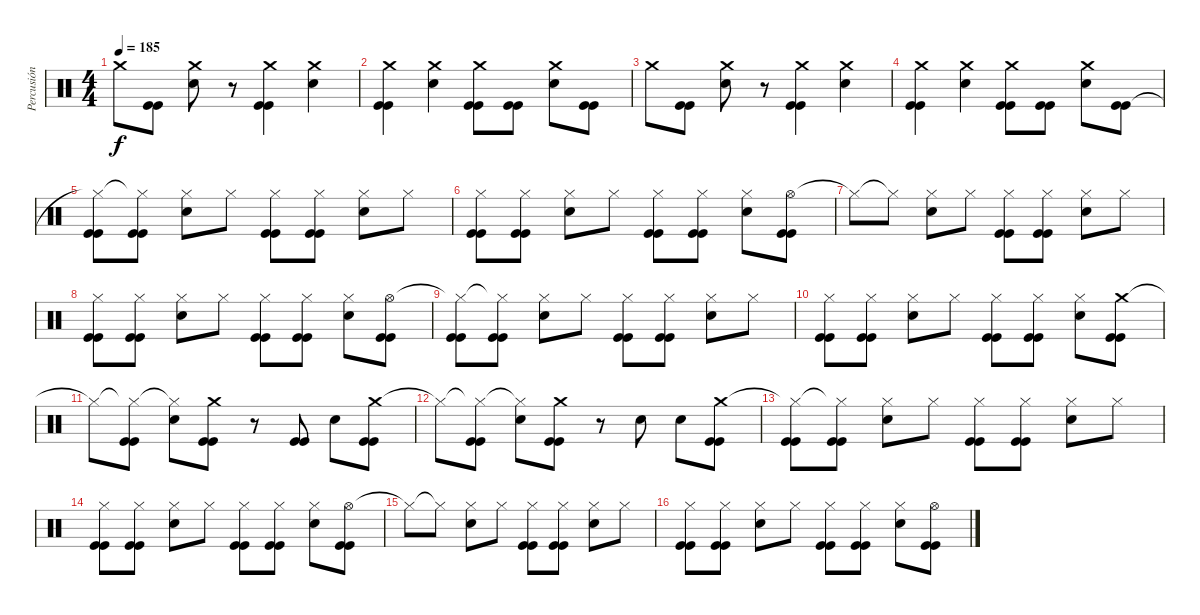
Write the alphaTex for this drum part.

\track ("Percusión" "Percusión") {instrument percussion}
\staff {score}
\articulation defaults
\ts (4 4)
\tempo 185
\clef neutral
\ks c "Crash medium (hit)".8{dy f}
("Kick (hit)" "Kick (hit)").8 ("Crash medium (hit)" "Electric Snare (hit)").8 r.8 ("Crash medium (hit)" "Kick (hit)" "Kick (hit)").4 ("Crash medium (hit)" "Electric Snare (hit)").4 |
("Crash medium (hit)" "Kick (hit)" "Kick (hit)").4 ("Crash medium (hit)" "Electric Snare (hit)").4 ("Crash medium (hit)" "Kick (hit)" "Kick (hit)").8 ("Kick (hit)" "Kick (hit)").8 ("Crash medium (hit)" "Electric Snare (hit)").8 ("Kick (hit)" "Kick (hit)").8 |
"Crash medium (hit)".8 ("Kick (hit)" "Kick (hit)").8 ("Crash medium (hit)" "Electric Snare (hit)").8 r.8 ("Crash medium (hit)" "Kick (hit)" "Kick (hit)").4 ("Crash medium (hit)" "Electric Snare (hit)").4 |
("Crash medium (hit)" "Kick (hit)" "Kick (hit)").4 ("Crash medium (hit)" "Electric Snare (hit)").4 ("Crash medium (hit)" "Kick (hit)" "Kick (hit)").8 ("Kick (hit)" "Kick (hit)").8 ("Crash medium (hit)" "Electric Snare (hit)").8 ("Kick (hit)" "Kick (hit)").8 |
("Hi-Hat (closed)"{t} "Kick (hit)" "Kick (hit)").8 ("Hi-Hat (closed)"{t} "Kick (hit)" "Kick (hit)").8 ("Hi-Hat (closed)" "Electric Snare (hit)").8 "Hi-Hat (closed)".8 ("Hi-Hat (closed)" "Kick (hit)" "Kick (hit)").8 ("Hi-Hat (closed)" "Kick (hit)" "Kick (hit)").8 ("Hi-Hat (closed)" "Electric Snare (hit)").8 "Hi-Hat (closed)".8 |
("Hi-Hat (closed)" "Kick (hit)" "Kick (hit)").8 ("Hi-Hat (closed)" "Kick (hit)" "Kick (hit)").8 ("Hi-Hat (closed)" "Electric Snare (hit)").8 "Hi-Hat (closed)".8 ("Hi-Hat (closed)" "Kick (hit)" "Kick (hit)").8 ("Hi-Hat (closed)" "Kick (hit)" "Kick (hit)").8 ("Hi-Hat (closed)" "Electric Snare (hit)").8 ("Hi-Hat (open)" "Kick (hit)" "Kick (hit)").8 |
"Hi-Hat (closed)"{t}.8 "Hi-Hat (closed)"{t}.8 ("Hi-Hat (closed)" "Electric Snare (hit)").8 "Hi-Hat (closed)".8 ("Hi-Hat (closed)" "Kick (hit)" "Kick (hit)").8 ("Hi-Hat (closed)" "Kick (hit)" "Kick (hit)").8 ("Hi-Hat (closed)" "Electric Snare (hit)").8 "Hi-Hat (closed)".8 |
("Hi-Hat (closed)" "Kick (hit)" "Kick (hit)").8 ("Hi-Hat (closed)" "Kick (hit)" "Kick (hit)").8 ("Hi-Hat (closed)" "Electric Snare (hit)").8 "Hi-Hat (closed)".8 ("Hi-Hat (closed)" "Kick (hit)" "Kick (hit)").8 ("Hi-Hat (closed)" "Kick (hit)" "Kick (hit)").8 ("Hi-Hat (closed)" "Electric Snare (hit)").8 ("Hi-Hat (open)" "Kick (hit)" "Kick (hit)").8 |
("Hi-Hat (closed)"{t} "Kick (hit)" "Kick (hit)").8 ("Hi-Hat (closed)"{t} "Kick (hit)" "Kick (hit)").8 ("Hi-Hat (closed)" "Electric Snare (hit)").8 "Hi-Hat (closed)".8 ("Hi-Hat (closed)" "Kick (hit)" "Kick (hit)").8 ("Hi-Hat (closed)" "Kick (hit)" "Kick (hit)").8 ("Hi-Hat (closed)" "Electric Snare (hit)").8 "Hi-Hat (closed)".8 |
("Hi-Hat (closed)" "Kick (hit)" "Kick (hit)").8 ("Hi-Hat (closed)" "Kick (hit)" "Kick (hit)").8 ("Hi-Hat (closed)" "Electric Snare (hit)").8 "Hi-Hat (closed)".8 ("Hi-Hat (closed)" "Kick (hit)" "Kick (hit)").8 ("Hi-Hat (closed)" "Kick (hit)" "Kick (hit)").8 ("Hi-Hat (closed)" "Electric Snare (hit)").8 ("Crash medium (hit)" "Kick (hit)" "Kick (hit)").8 |
"Hi-Hat (closed)"{t}.8 ("Hi-Hat (closed)"{t} "Kick (hit)" "Kick (hit)").8 ("Hi-Hat (closed)"{t} "Electric Snare (hit)").8 ("Crash medium (hit)" "Kick (hit)" "Kick (hit)").8 r.8 ("Kick (hit)" "Kick (hit)").8 "Electric Snare (hit)".8 ("Crash medium (hit)" "Kick (hit)" "Kick (hit)").8 |
"Hi-Hat (closed)"{t}.8 ("Hi-Hat (closed)"{t} "Kick (hit)" "Kick (hit)").8 ("Hi-Hat (closed)"{t} "Electric Snare (hit)").8 ("Crash medium (hit)" "Kick (hit)" "Kick (hit)").8 r.8 "Electric Snare (hit)".8 "Electric Snare (hit)".8 ("Crash medium (hit)" "Kick (hit)" "Kick (hit)").8 |
("Hi-Hat (closed)"{t} "Kick (hit)" "Kick (hit)").8 ("Hi-Hat (closed)"{t} "Kick (hit)" "Kick (hit)").8 ("Hi-Hat (closed)" "Electric Snare (hit)").8 "Hi-Hat (closed)".8 ("Hi-Hat (closed)" "Kick (hit)" "Kick (hit)").8 ("Hi-Hat (closed)" "Kick (hit)" "Kick (hit)").8 ("Hi-Hat (closed)" "Electric Snare (hit)").8 "Hi-Hat (closed)".8 |
("Hi-Hat (closed)" "Kick (hit)" "Kick (hit)").8 ("Hi-Hat (closed)" "Kick (hit)" "Kick (hit)").8 ("Hi-Hat (closed)" "Electric Snare (hit)").8 "Hi-Hat (closed)".8 ("Hi-Hat (closed)" "Kick (hit)" "Kick (hit)").8 ("Hi-Hat (closed)" "Kick (hit)" "Kick (hit)").8 ("Hi-Hat (closed)" "Electric Snare (hit)").8 ("Hi-Hat (open)" "Kick (hit)" "Kick (hit)").8 |
"Hi-Hat (closed)"{t}.8 "Hi-Hat (closed)"{t}.8 ("Hi-Hat (closed)" "Electric Snare (hit)").8 "Hi-Hat (closed)".8 ("Hi-Hat (closed)" "Kick (hit)" "Kick (hit)").8 ("Hi-Hat (closed)" "Kick (hit)" "Kick (hit)").8 ("Hi-Hat (closed)" "Electric Snare (hit)").8 "Hi-Hat (closed)".8 |
("Hi-Hat (closed)" "Kick (hit)" "Kick (hit)").8 ("Hi-Hat (closed)" "Kick (hit)" "Kick (hit)").8 ("Hi-Hat (closed)" "Electric Snare (hit)").8 "Hi-Hat (closed)".8 ("Hi-Hat (closed)" "Kick (hit)" "Kick (hit)").8 ("Hi-Hat (closed)" "Kick (hit)" "Kick (hit)").8 ("Hi-Hat (closed)" "Electric Snare (hit)").8 ("Hi-Hat (open)" "Kick (hit)" "Kick (hit)").8
